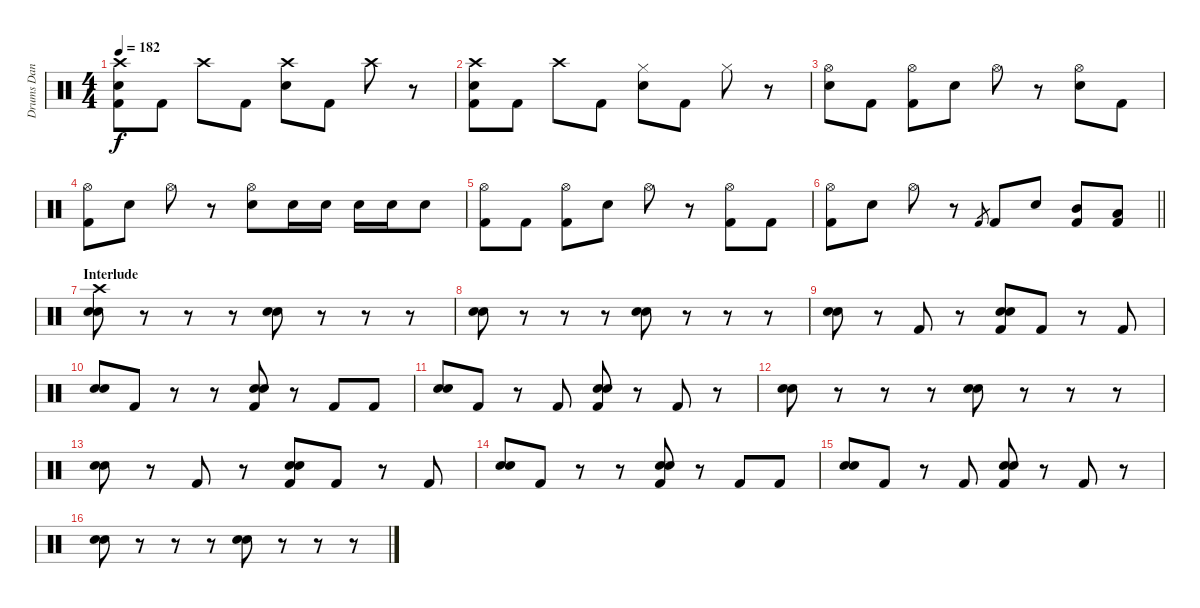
\track ("Drums Dan Searle" "Drums Dan ") {instrument percussion}
\staff {score}
\articulation defaults
\ts (4 4)
\tempo 182
\clef neutral
\ks c
("Crash high (hit)" "Electric Snare (hit)" "Kick (hit) 2").8{dy f} "Kick (hit) 2".8 "Crash high (hit)".8 "Kick (hit) 2".8 ("Crash high (hit)" "Electric Snare (hit)").8 "Kick (hit) 2".8 "Crash high (hit)".8 r.8 |
("Crash high (hit)" "Electric Snare (hit)" "Kick (hit) 2").8 "Kick (hit) 2".8 "Crash high (hit)".8 "Kick (hit) 2".8 ("Hi-Hat (closed)" "Electric Snare (hit)").8 "Kick (hit) 2".8 "Hi-Hat (closed)".8 r.8 |
("Hi-Hat (open)" "Electric Snare (hit)").8 "Kick (hit) 2".8 ("Hi-Hat (open)" "Kick (hit) 2").8 "Electric Snare (hit)".8 "Hi-Hat (open)".8 r.8 ("Hi-Hat (open)" "Electric Snare (hit)").8 "Kick (hit) 2".8 |
("Hi-Hat (open)" "Kick (hit) 2").8 "Electric Snare (hit)".8 "Hi-Hat (open)".8 r.8 ("Hi-Hat (open)" "Electric Snare (hit)").8 "Electric Snare (hit)".16 "Electric Snare (hit)".16 "Electric Snare (hit)".16 "Electric Snare (hit)".16 "Electric Snare (hit)".8 |
("Hi-Hat (open)" "Kick (hit) 2").8 "Kick (hit) 2".8 ("Hi-Hat (open)" "Kick (hit) 2").8 "Electric Snare (hit)".8 "Hi-Hat (open)".8 r.8 ("Hi-Hat (open)" "Kick (hit) 2").8 "Kick (hit) 2".8 |
\barLineRight lightlight
("Hi-Hat (open)" "Kick (hit) 2").8 "Electric Snare (hit)".8 "Hi-Hat (open)".8 r.8 "Kick (hit) 2".8{gr} "Kick (hit) 2".8 "Electric Snare (hit)".8 ("Mid Tom (hit)" "Kick (hit) 2").8 ("Low Tom (hit)" "Kick (hit) 2").8 |
\section ("" "Interlude")
("Crash high (hit)" "Electric Snare (hit)" "Electric Snare (hit)").8 r.8 r.8 r.8 ("Electric Snare (hit)" "Electric Snare (hit)").8 r.8 r.8 r.8 |
("Electric Snare (hit)" "Electric Snare (hit)").8 r.8 r.8 r.8 ("Electric Snare (hit)" "Electric Snare (hit)").8 r.8 r.8 r.8 |
("Electric Snare (hit)" "Electric Snare (hit)").8 r.8 "Kick (hit) 2".8 r.8 ("Electric Snare (hit)" "Electric Snare (hit)" "Kick (hit) 2").8 "Kick (hit) 2".8 r.8 "Kick (hit) 2".8 |
("Electric Snare (hit)" "Electric Snare (hit)").8 "Kick (hit) 2".8 r.8 r.8 ("Electric Snare (hit)" "Electric Snare (hit)" "Kick (hit) 2").8 r.8 "Kick (hit) 2".8 "Kick (hit) 2".8 |
("Electric Snare (hit)" "Electric Snare (hit)").8 "Kick (hit) 2".8 r.8 "Kick (hit) 2".8 ("Electric Snare (hit)" "Electric Snare (hit)" "Kick (hit) 2").8 r.8 "Kick (hit) 2".8 r.8 |
("Electric Snare (hit)" "Electric Snare (hit)").8 r.8 r.8 r.8 ("Electric Snare (hit)" "Electric Snare (hit)").8 r.8 r.8 r.8 |
("Electric Snare (hit)" "Electric Snare (hit)").8 r.8 "Kick (hit) 2".8 r.8 ("Electric Snare (hit)" "Electric Snare (hit)" "Kick (hit) 2").8 "Kick (hit) 2".8 r.8 "Kick (hit) 2".8 |
("Electric Snare (hit)" "Electric Snare (hit)").8 "Kick (hit) 2".8 r.8 r.8 ("Electric Snare (hit)" "Electric Snare (hit)" "Kick (hit) 2").8 r.8 "Kick (hit) 2".8 "Kick (hit) 2".8 |
("Electric Snare (hit)" "Electric Snare (hit)").8 "Kick (hit) 2".8 r.8 "Kick (hit) 2".8 ("Electric Snare (hit)" "Electric Snare (hit)" "Kick (hit) 2").8 r.8 "Kick (hit) 2".8 r.8 |
("Electric Snare (hit)" "Electric Snare (hit)").8 r.8 r.8 r.8 ("Electric Snare (hit)" "Electric Snare (hit)").8 r.8 r.8 r.8
